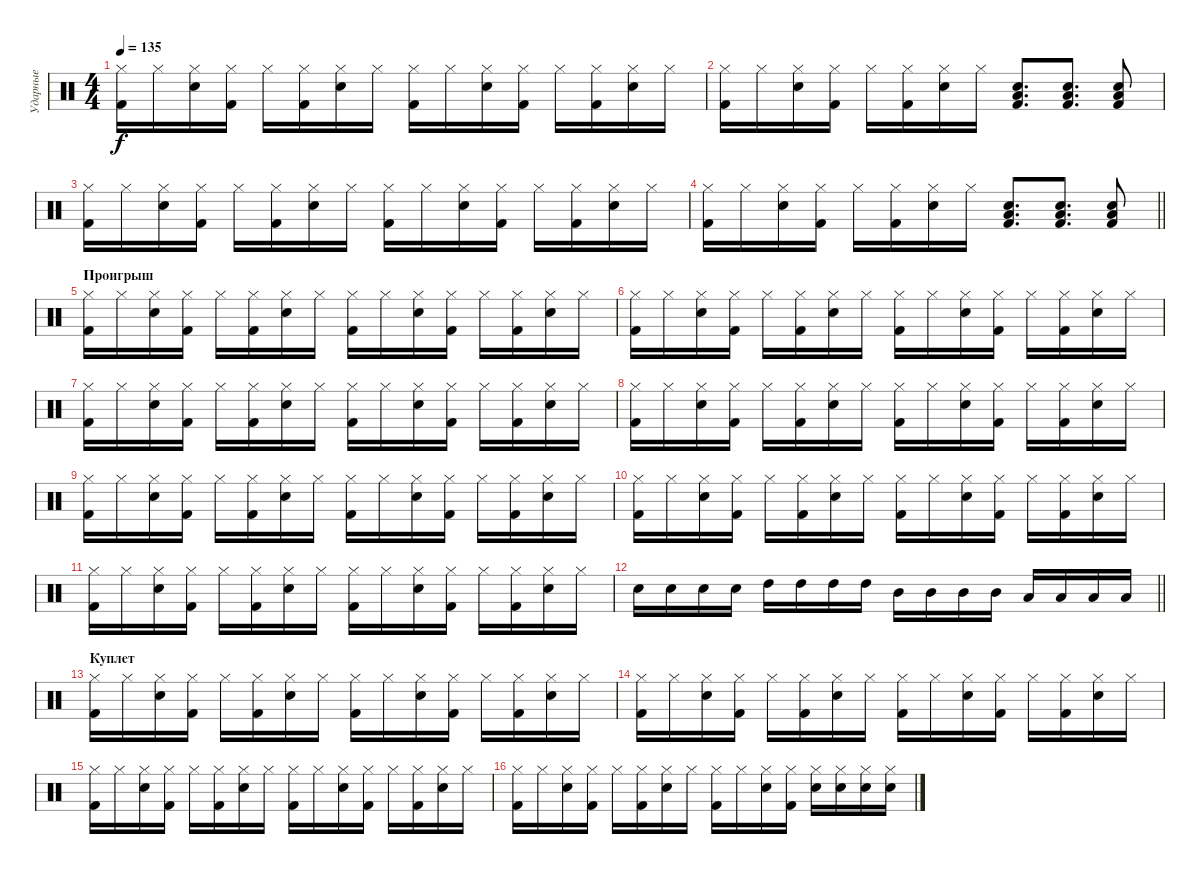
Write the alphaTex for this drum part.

\track ("Ударные" "Ударные") {instrument percussion}
\staff {score}
\articulation defaults
\ts (4 4)
\tempo 135
\clef neutral
\ks c
("Hi-Hat (closed)" "Kick (hit) 2").16{dy f} "Hi-Hat (closed)".16 ("Hi-Hat (closed)" "Snare (hit) 2").16 ("Hi-Hat (closed)" "Kick (hit) 2").16 "Hi-Hat (closed)".16 ("Hi-Hat (closed)" "Kick (hit) 2").16 ("Hi-Hat (closed)" "Snare (hit) 2").16 "Hi-Hat (closed)".16 ("Hi-Hat (closed)" "Kick (hit) 2").16 "Hi-Hat (closed)".16 ("Hi-Hat (closed)" "Snare (hit) 2").16 ("Hi-Hat (closed)" "Kick (hit) 2").16 "Hi-Hat (closed)".16 ("Hi-Hat (closed)" "Kick (hit) 2").16 ("Hi-Hat (closed)" "Snare (hit) 2").16 "Hi-Hat (closed)".16 |
("Hi-Hat (closed)" "Kick (hit) 2").16 "Hi-Hat (closed)".16 ("Hi-Hat (closed)" "Snare (hit) 2").16 ("Hi-Hat (closed)" "Kick (hit) 2").16 "Hi-Hat (closed)".16 ("Hi-Hat (closed)" "Kick (hit) 2").16 ("Hi-Hat (closed)" "Snare (hit) 2").16 "Hi-Hat (closed)".16 ("Snare (hit) 2" "Low Tom (hit)" "Kick (hit) 2").8{d} ("Snare (hit) 2" "Low Tom (hit)" "Kick (hit) 2").8{d} ("Snare (hit) 2" "Low Tom (hit)" "Kick (hit) 2").8 |
("Hi-Hat (closed)" "Kick (hit) 2").16 "Hi-Hat (closed)".16 ("Hi-Hat (closed)" "Snare (hit) 2").16 ("Hi-Hat (closed)" "Kick (hit) 2").16 "Hi-Hat (closed)".16 ("Hi-Hat (closed)" "Kick (hit) 2").16 ("Hi-Hat (closed)" "Snare (hit) 2").16 "Hi-Hat (closed)".16 ("Hi-Hat (closed)" "Kick (hit) 2").16 "Hi-Hat (closed)".16 ("Hi-Hat (closed)" "Snare (hit) 2").16 ("Hi-Hat (closed)" "Kick (hit) 2").16 "Hi-Hat (closed)".16 ("Hi-Hat (closed)" "Kick (hit) 2").16 ("Hi-Hat (closed)" "Snare (hit) 2").16 "Hi-Hat (closed)".16 |
\barLineRight lightlight
("Hi-Hat (closed)" "Kick (hit) 2").16 "Hi-Hat (closed)".16 ("Hi-Hat (closed)" "Snare (hit) 2").16 ("Hi-Hat (closed)" "Kick (hit) 2").16 "Hi-Hat (closed)".16 ("Hi-Hat (closed)" "Kick (hit) 2").16 ("Hi-Hat (closed)" "Snare (hit) 2").16 "Hi-Hat (closed)".16 ("Snare (hit) 2" "Low Tom (hit)" "Kick (hit) 2").8{d} ("Snare (hit) 2" "Low Tom (hit)" "Kick (hit) 2").8{d} ("Snare (hit) 2" "Low Tom (hit)" "Kick (hit) 2").8 |
\section ("" "Проигрыш")
("Hi-Hat (closed)" "Kick (hit) 2").16 "Hi-Hat (closed)".16 ("Hi-Hat (closed)" "Snare (hit) 2").16 ("Hi-Hat (closed)" "Kick (hit) 2").16 "Hi-Hat (closed)".16 ("Hi-Hat (closed)" "Kick (hit) 2").16 ("Hi-Hat (closed)" "Snare (hit) 2").16 "Hi-Hat (closed)".16 ("Hi-Hat (closed)" "Kick (hit) 2").16 "Hi-Hat (closed)".16 ("Hi-Hat (closed)" "Snare (hit) 2").16 ("Hi-Hat (closed)" "Kick (hit) 2").16 "Hi-Hat (closed)".16 ("Hi-Hat (closed)" "Kick (hit) 2").16 ("Hi-Hat (closed)" "Snare (hit) 2").16 "Hi-Hat (closed)".16 |
("Hi-Hat (closed)" "Kick (hit) 2").16 "Hi-Hat (closed)".16 ("Hi-Hat (closed)" "Snare (hit) 2").16 ("Hi-Hat (closed)" "Kick (hit) 2").16 "Hi-Hat (closed)".16 ("Hi-Hat (closed)" "Kick (hit) 2").16 ("Hi-Hat (closed)" "Snare (hit) 2").16 "Hi-Hat (closed)".16 ("Hi-Hat (closed)" "Kick (hit) 2").16 "Hi-Hat (closed)".16 ("Hi-Hat (closed)" "Snare (hit) 2").16 ("Hi-Hat (closed)" "Kick (hit) 2").16 "Hi-Hat (closed)".16 ("Hi-Hat (closed)" "Kick (hit) 2").16 ("Hi-Hat (closed)" "Snare (hit) 2").16 "Hi-Hat (closed)".16 |
("Hi-Hat (closed)" "Kick (hit) 2").16 "Hi-Hat (closed)".16 ("Hi-Hat (closed)" "Snare (hit) 2").16 ("Hi-Hat (closed)" "Kick (hit) 2").16 "Hi-Hat (closed)".16 ("Hi-Hat (closed)" "Kick (hit) 2").16 ("Hi-Hat (closed)" "Snare (hit) 2").16 "Hi-Hat (closed)".16 ("Hi-Hat (closed)" "Kick (hit) 2").16 "Hi-Hat (closed)".16 ("Hi-Hat (closed)" "Snare (hit) 2").16 ("Hi-Hat (closed)" "Kick (hit) 2").16 "Hi-Hat (closed)".16 ("Hi-Hat (closed)" "Kick (hit) 2").16 ("Hi-Hat (closed)" "Snare (hit) 2").16 "Hi-Hat (closed)".16 |
("Hi-Hat (closed)" "Kick (hit) 2").16 "Hi-Hat (closed)".16 ("Hi-Hat (closed)" "Snare (hit) 2").16 ("Hi-Hat (closed)" "Kick (hit) 2").16 "Hi-Hat (closed)".16 ("Hi-Hat (closed)" "Kick (hit) 2").16 ("Hi-Hat (closed)" "Snare (hit) 2").16 "Hi-Hat (closed)".16 ("Hi-Hat (closed)" "Kick (hit) 2").16 "Hi-Hat (closed)".16 ("Hi-Hat (closed)" "Snare (hit) 2").16 ("Hi-Hat (closed)" "Kick (hit) 2").16 "Hi-Hat (closed)".16 ("Hi-Hat (closed)" "Kick (hit) 2").16 ("Hi-Hat (closed)" "Snare (hit) 2").16 "Hi-Hat (closed)".16 |
("Hi-Hat (closed)" "Kick (hit) 2").16 "Hi-Hat (closed)".16 ("Hi-Hat (closed)" "Snare (hit) 2").16 ("Hi-Hat (closed)" "Kick (hit) 2").16 "Hi-Hat (closed)".16 ("Hi-Hat (closed)" "Kick (hit) 2").16 ("Hi-Hat (closed)" "Snare (hit) 2").16 "Hi-Hat (closed)".16 ("Hi-Hat (closed)" "Kick (hit) 2").16 "Hi-Hat (closed)".16 ("Hi-Hat (closed)" "Snare (hit) 2").16 ("Hi-Hat (closed)" "Kick (hit) 2").16 "Hi-Hat (closed)".16 ("Hi-Hat (closed)" "Kick (hit) 2").16 ("Hi-Hat (closed)" "Snare (hit) 2").16 "Hi-Hat (closed)".16 |
("Hi-Hat (closed)" "Kick (hit) 2").16 "Hi-Hat (closed)".16 ("Hi-Hat (closed)" "Snare (hit) 2").16 ("Hi-Hat (closed)" "Kick (hit) 2").16 "Hi-Hat (closed)".16 ("Hi-Hat (closed)" "Kick (hit) 2").16 ("Hi-Hat (closed)" "Snare (hit) 2").16 "Hi-Hat (closed)".16 ("Hi-Hat (closed)" "Kick (hit) 2").16 "Hi-Hat (closed)".16 ("Hi-Hat (closed)" "Snare (hit) 2").16 ("Hi-Hat (closed)" "Kick (hit) 2").16 "Hi-Hat (closed)".16 ("Hi-Hat (closed)" "Kick (hit) 2").16 ("Hi-Hat (closed)" "Snare (hit) 2").16 "Hi-Hat (closed)".16 |
("Hi-Hat (closed)" "Kick (hit) 2").16 "Hi-Hat (closed)".16 ("Hi-Hat (closed)" "Snare (hit) 2").16 ("Hi-Hat (closed)" "Kick (hit) 2").16 "Hi-Hat (closed)".16 ("Hi-Hat (closed)" "Kick (hit) 2").16 ("Hi-Hat (closed)" "Snare (hit) 2").16 "Hi-Hat (closed)".16 ("Hi-Hat (closed)" "Kick (hit) 2").16 "Hi-Hat (closed)".16 ("Hi-Hat (closed)" "Snare (hit) 2").16 ("Hi-Hat (closed)" "Kick (hit) 2").16 "Hi-Hat (closed)".16 ("Hi-Hat (closed)" "Kick (hit) 2").16 ("Hi-Hat (closed)" "Snare (hit) 2").16 "Hi-Hat (closed)".16 |
\barLineRight lightlight "Snare (hit) 2".16 "Snare (hit) 2".16 "Snare (hit) 2".16 "Snare (hit) 2".16 "High Tom (hit)".16 "High Tom (hit)".16 "High Tom (hit)".16 "High Tom (hit)".16 "Mid Tom (hit)".16 "Mid Tom (hit)".16 "Mid Tom (hit)".16 "Mid Tom (hit)".16 "Low Tom (hit)".16 "Low Tom (hit)".16 "Low Tom (hit)".16 "Low Tom (hit)".16
|
\section ("" "Куплет")
("Hi-Hat (closed)" "Kick (hit) 2").16 "Hi-Hat (closed)".16 ("Hi-Hat (closed)" "Snare (hit) 2").16 ("Hi-Hat (closed)" "Kick (hit) 2").16 "Hi-Hat (closed)".16 ("Hi-Hat (closed)" "Kick (hit) 2").16 ("Hi-Hat (closed)" "Snare (hit) 2").16 "Hi-Hat (closed)".16 ("Hi-Hat (closed)" "Kick (hit) 2").16 "Hi-Hat (closed)".16 ("Hi-Hat (closed)" "Snare (hit) 2").16 ("Hi-Hat (closed)" "Kick (hit) 2").16 "Hi-Hat (closed)".16 ("Hi-Hat (closed)" "Kick (hit) 2").16 ("Hi-Hat (closed)" "Snare (hit) 2").16 "Hi-Hat (closed)".16 |
("Hi-Hat (closed)" "Kick (hit) 2").16 "Hi-Hat (closed)".16 ("Hi-Hat (closed)" "Snare (hit) 2").16 ("Hi-Hat (closed)" "Kick (hit) 2").16 "Hi-Hat (closed)".16 ("Hi-Hat (closed)" "Kick (hit) 2").16 ("Hi-Hat (closed)" "Snare (hit) 2").16 "Hi-Hat (closed)".16 ("Hi-Hat (closed)" "Kick (hit) 2").16 "Hi-Hat (closed)".16 ("Hi-Hat (closed)" "Snare (hit) 2").16 ("Hi-Hat (closed)" "Kick (hit) 2").16 "Hi-Hat (closed)".16 ("Hi-Hat (closed)" "Kick (hit) 2").16 ("Hi-Hat (closed)" "Snare (hit) 2").16 "Hi-Hat (closed)".16 |
("Hi-Hat (closed)" "Kick (hit) 2").16 "Hi-Hat (closed)".16 ("Hi-Hat (closed)" "Snare (hit) 2").16 ("Hi-Hat (closed)" "Kick (hit) 2").16 "Hi-Hat (closed)".16 ("Hi-Hat (closed)" "Kick (hit) 2").16 ("Hi-Hat (closed)" "Snare (hit) 2").16 "Hi-Hat (closed)".16 ("Hi-Hat (closed)" "Kick (hit) 2").16 "Hi-Hat (closed)".16 ("Hi-Hat (closed)" "Snare (hit) 2").16 ("Hi-Hat (closed)" "Kick (hit) 2").16 "Hi-Hat (closed)".16 ("Hi-Hat (closed)" "Kick (hit) 2").16 ("Hi-Hat (closed)" "Snare (hit) 2").16 "Hi-Hat (closed)".16 |
("Hi-Hat (closed)" "Kick (hit) 2").16 "Hi-Hat (closed)".16 ("Hi-Hat (closed)" "Snare (hit) 2").16 ("Hi-Hat (closed)" "Kick (hit) 2").16 "Hi-Hat (closed)".16 ("Hi-Hat (closed)" "Kick (hit) 2").16 ("Hi-Hat (closed)" "Snare (hit) 2").16 "Hi-Hat (closed)".16 ("Hi-Hat (closed)" "Kick (hit) 2").16 "Hi-Hat (closed)".16 ("Hi-Hat (closed)" "Snare (hit) 2").16 ("Hi-Hat (closed)" "Kick (hit) 2").16 ("Hi-Hat (closed)" "Snare (hit) 2").16 ("Hi-Hat (closed)" "Snare (hit) 2").16 ("Hi-Hat (closed)" "Snare (hit) 2").16 ("Hi-Hat (closed)" "Snare (hit) 2").16
